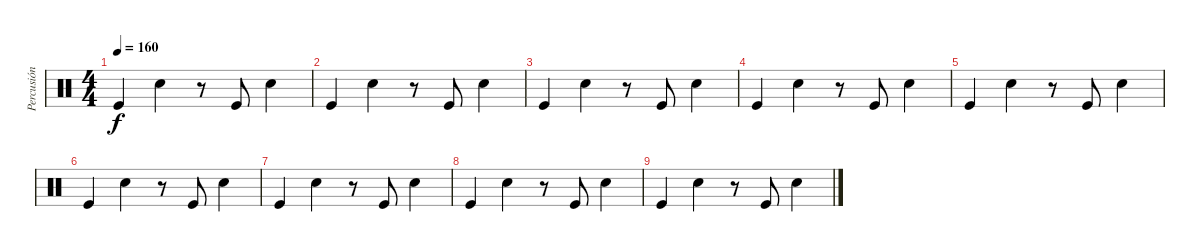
\track ("Percusión" "Percusión") {instrument percussion}
\staff {score}
\articulation defaults
\ts (4 4)
\tempo 160
\clef neutral
\ks c "Kick (hit)".4{dy f} "Snare (hit) 2".4
r.8 "Kick (hit)".8 "Snare (hit) 2".4 |
"Kick (hit)".4 "Snare (hit) 2".4 r.8 "Kick (hit)".8 "Snare (hit) 2".4 |
"Kick (hit)".4 "Snare (hit) 2".4 r.8 "Kick (hit)".8 "Snare (hit) 2".4 |
"Kick (hit)".4 "Snare (hit) 2".4 r.8 "Kick (hit)".8 "Snare (hit) 2".4 |
"Kick (hit)".4 "Snare (hit) 2".4 r.8 "Kick (hit)".8 "Snare (hit) 2".4 |
"Kick (hit)".4 "Snare (hit) 2".4 r.8 "Kick (hit)".8 "Snare (hit) 2".4 |
"Kick (hit)".4 "Snare (hit) 2".4 r.8 "Kick (hit)".8 "Snare (hit) 2".4 |
"Kick (hit)".4 "Snare (hit) 2".4 r.8 "Kick (hit)".8 "Snare (hit) 2".4 |
"Kick (hit)".4 "Snare (hit) 2".4 r.8 "Kick (hit)".8 "Snare (hit) 2".4
